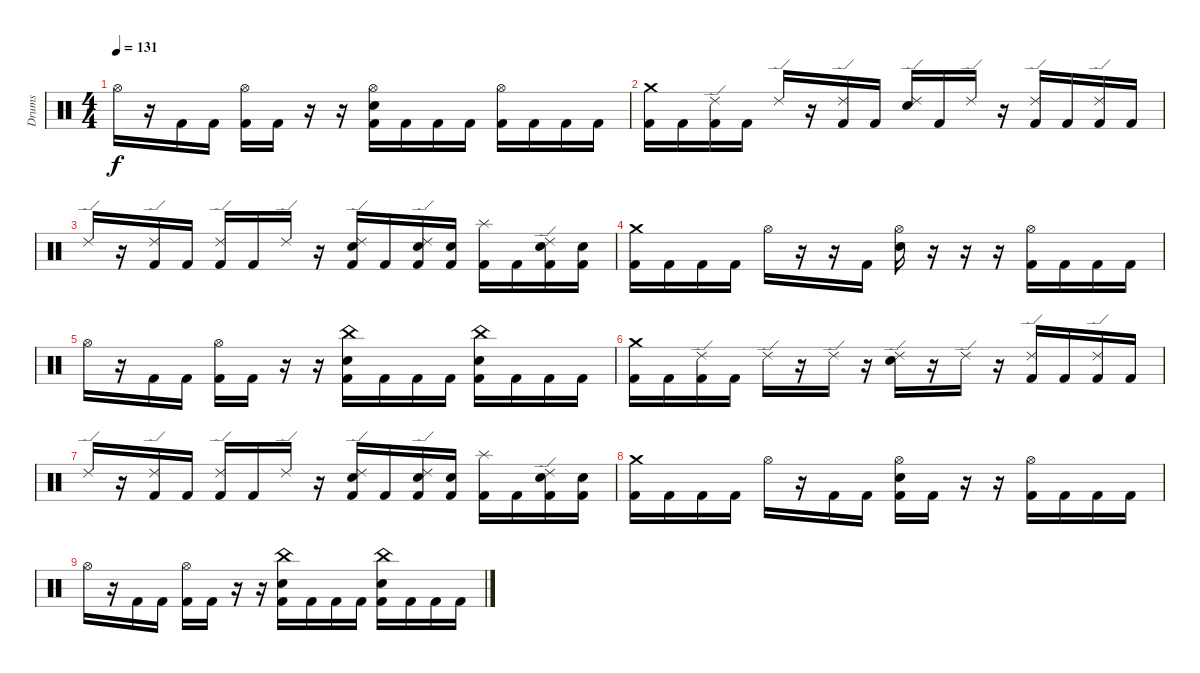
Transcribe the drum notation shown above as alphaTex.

\track ("Drums" "Drums") {instrument percussion}
\staff {score}
\articulation defaults
\ts (4 4)
\tempo 131
\clef neutral
\ks c "Hi-Hat (open)".16{dy f}
r.16 "Kick (hit) 2".16 "Kick (hit) 2".16 ("Hi-Hat (open)" "Kick (hit) 2").16 "Kick (hit) 2".16 r.16 r.16 ("Hi-Hat (open)" "Electric Snare (hit)" "Kick (hit) 2").16 "Kick (hit) 2".16 "Kick (hit) 2".16 "Kick (hit) 2".16 ("Hi-Hat (open)" "Kick (hit) 2").16 "Kick (hit) 2".16 "Kick (hit) 2".16 "Kick (hit) 2".16 |
("Crash medium (hit)" "Kick (hit) 2").16{volume 6} "Kick (hit) 2".16 ("Ride (edge) 2" "Kick (hit) 2").16 "Kick (hit) 2".16 "Ride (edge) 2".16 r.16 ("Ride (edge) 2" "Kick (hit) 2").16 "Kick (hit) 2".16 ("Ride (edge) 2" "Electric Snare (hit)").16 "Kick (hit) 2".16 "Ride (edge) 2".16 r.16 ("Ride (edge) 2" "Kick (hit) 2").16 "Kick (hit) 2".16 ("Ride (edge) 2" "Kick (hit) 2").16 "Kick (hit) 2".16 |
"Ride (edge) 2".16 r.16 ("Ride (edge) 2" "Kick (hit) 2").16 "Kick (hit) 2".16 ("Ride (edge) 2" "Kick (hit) 2").16 "Kick (hit) 2".16 "Ride (edge) 2".16 r.16 ("Ride (edge) 2" "Electric Snare (hit)" "Kick (hit) 2").16 "Kick (hit) 2".16 ("Ride (edge) 2" "Electric Snare (hit)" "Kick (hit) 2").16 ("Electric Snare (hit)" "Kick (hit) 2").16 ("Splash (hit)" "Kick (hit) 2").16 "Kick (hit) 2".16 ("Ride (edge) 2" "Electric Snare (hit)" "Kick (hit) 2").16 ("Electric Snare (hit)" "Kick (hit) 2").16 |
("Crash medium (hit)" "Kick (hit) 2").16 "Kick (hit) 2".16 "Kick (hit) 2".16 "Kick (hit) 2".16 "Hi-Hat (open)".16 r.16 r.16 "Kick (hit) 2".16 ("Hi-Hat (open)" "Electric Snare (hit)").16 r.16 r.16 r.16 ("Hi-Hat (open)" "Kick (hit) 2").16 "Kick (hit) 2".16 "Kick (hit) 2".16 "Kick (hit) 2".16 |
"Hi-Hat (open)".16 r.16 "Kick (hit) 2".16 "Kick (hit) 2".16 ("Hi-Hat (open)" "Kick (hit) 2").16 "Kick (hit) 2".16 r.16 r.16 ("China (hit)" "Electric Snare (hit)" "Kick (hit) 2").16 "Kick (hit) 2".16 "Kick (hit) 2".16 "Kick (hit) 2".16 ("China (hit)" "Electric Snare (hit)" "Kick (hit) 2").16 "Kick (hit) 2".16 "Kick (hit) 2".16 "Kick (hit) 2".16 |
("Crash medium (hit)" "Kick (hit) 2").16{volume 0} "Kick (hit) 2".16 ("Ride (edge) 2" "Kick (hit) 2").16 "Kick (hit) 2".16 "Ride (edge) 2".16 r.16 "Ride (edge) 2".16 r.16 ("Ride (edge) 2" "Electric Snare (hit)").16 r.16 "Ride (edge) 2".16 r.16 ("Ride (edge) 2" "Kick (hit) 2").16 "Kick (hit) 2".16 ("Ride (edge) 2" "Kick (hit) 2").16 "Kick (hit) 2".16 |
"Ride (edge) 2".16 r.16 ("Ride (edge) 2" "Kick (hit) 2").16 "Kick (hit) 2".16 ("Ride (edge) 2" "Kick (hit) 2").16 "Kick (hit) 2".16 "Ride (edge) 2".16 r.16 ("Ride (edge) 2" "Electric Snare (hit)" "Kick (hit) 2").16 "Kick (hit) 2".16 ("Ride (edge) 2" "Electric Snare (hit)" "Kick (hit) 2").16 ("Electric Snare (hit)" "Kick (hit) 2").16 ("Splash (hit)" "Kick (hit) 2").16 "Kick (hit) 2".16 ("Ride (edge) 2" "Electric Snare (hit)" "Kick (hit) 2").16 ("Electric Snare (hit)" "Kick (hit) 2").16 |
("Crash medium (hit)" "Kick (hit) 2").16 "Kick (hit) 2".16 "Kick (hit) 2".16 "Kick (hit) 2".16 "Hi-Hat (open)".16 r.16 "Kick (hit) 2".16 "Kick (hit) 2".16 ("Hi-Hat (open)" "Electric Snare (hit)" "Kick (hit) 2").16 "Kick (hit) 2".16 r.16 r.16 ("Hi-Hat (open)" "Kick (hit) 2").16 "Kick (hit) 2".16 "Kick (hit) 2".16 "Kick (hit) 2".16 |
"Hi-Hat (open)".16 r.16 "Kick (hit) 2".16 "Kick (hit) 2".16 ("Hi-Hat (open)" "Kick (hit) 2").16 "Kick (hit) 2".16 r.16 r.16 ("China (hit)" "Electric Snare (hit)" "Kick (hit) 2").16 "Kick (hit) 2".16 "Kick (hit) 2".16 "Kick (hit) 2".16 ("China (hit)" "Electric Snare (hit)" "Kick (hit) 2").16 "Kick (hit) 2".16 "Kick (hit) 2".16 "Kick (hit) 2".16
